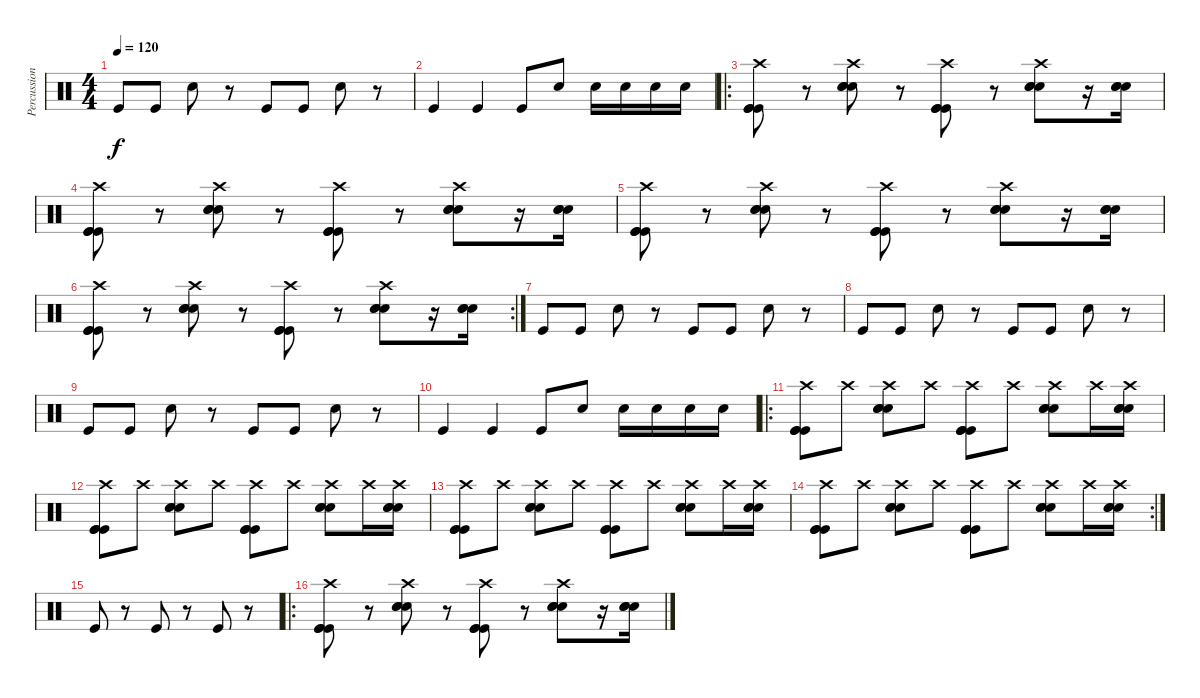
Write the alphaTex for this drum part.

\track ("Percussions" "Percussion") {instrument percussion}
\staff {score}
\articulation defaults
\ts (4 4)
\tempo 120
\clef neutral
\ks c "Kick (hit)".8{dy f} "Kick (hit)".8 "Electric Snare (hit)".8
r.8 "Kick (hit)".8 "Kick (hit)".8 "Electric Snare (hit)".8 r.8 |
"Kick (hit)".4 "Kick (hit)".4 "Kick (hit)".8 "Electric Snare (hit)".8 "Electric Snare (hit)".16 "Electric Snare (hit)".16 "Electric Snare (hit)".16 "Electric Snare (hit)".16 |
\ro
("Crash high (hit)" "Kick (hit)" "Kick (hit)" "Kick (hit)").8 r.8 ("Crash high (hit)" "Electric Snare (hit)" "Electric Snare (hit)" "Electric Snare (hit)").8 r.8 ("Crash high (hit)" "Kick (hit)" "Kick (hit)" "Kick (hit)").8 r.8 ("Crash high (hit)" "Electric Snare (hit)" "Electric Snare (hit)" "Electric Snare (hit)").8 r.16 ("Electric Snare (hit)" "Electric Snare (hit)" "Electric Snare (hit)").16 |
("Crash high (hit)" "Kick (hit)" "Kick (hit)" "Kick (hit)").8 r.8 ("Crash high (hit)" "Electric Snare (hit)" "Electric Snare (hit)" "Electric Snare (hit)").8 r.8 ("Crash high (hit)" "Kick (hit)" "Kick (hit)" "Kick (hit)").8 r.8 ("Crash high (hit)" "Electric Snare (hit)" "Electric Snare (hit)" "Electric Snare (hit)").8 r.16 ("Electric Snare (hit)" "Electric Snare (hit)" "Electric Snare (hit)").16 |
("Crash high (hit)" "Kick (hit)" "Kick (hit)" "Kick (hit)").8 r.8 ("Crash high (hit)" "Electric Snare (hit)" "Electric Snare (hit)" "Electric Snare (hit)").8 r.8 ("Crash high (hit)" "Kick (hit)" "Kick (hit)" "Kick (hit)").8 r.8 ("Crash high (hit)" "Electric Snare (hit)" "Electric Snare (hit)" "Electric Snare (hit)").8 r.16 ("Electric Snare (hit)" "Electric Snare (hit)" "Electric Snare (hit)").16 |
\rc 2
("Crash high (hit)" "Kick (hit)" "Kick (hit)" "Kick (hit)").8 r.8 ("Crash high (hit)" "Electric Snare (hit)" "Electric Snare (hit)" "Electric Snare (hit)").8 r.8 ("Crash high (hit)" "Kick (hit)" "Kick (hit)" "Kick (hit)").8 r.8 ("Crash high (hit)" "Electric Snare (hit)" "Electric Snare (hit)" "Electric Snare (hit)").8 r.16 ("Electric Snare (hit)" "Electric Snare (hit)" "Electric Snare (hit)").16 |
"Kick (hit)".8 "Kick (hit)".8 "Electric Snare (hit)".8 r.8 "Kick (hit)".8 "Kick (hit)".8 "Electric Snare (hit)".8 r.8 |
"Kick (hit)".8 "Kick (hit)".8 "Electric Snare (hit)".8 r.8 "Kick (hit)".8 "Kick (hit)".8 "Electric Snare (hit)".8 r.8 |
"Kick (hit)".8 "Kick (hit)".8 "Electric Snare (hit)".8 r.8 "Kick (hit)".8 "Kick (hit)".8 "Electric Snare (hit)".8 r.8 |
"Kick (hit)".4 "Kick (hit)".4 "Kick (hit)".8 "Electric Snare (hit)".8 "Electric Snare (hit)".16 "Electric Snare (hit)".16 "Electric Snare (hit)".16 "Electric Snare (hit)".16 |
\ro
("Crash high (hit)" "Kick (hit)" "Kick (hit)" "Kick (hit)").8 "Crash high (hit)".8 ("Crash high (hit)" "Electric Snare (hit)" "Electric Snare (hit)" "Electric Snare (hit)").8 "Crash high (hit)".8 ("Crash high (hit)" "Kick (hit)" "Kick (hit)" "Kick (hit)").8 "Crash high (hit)".8 ("Crash high (hit)" "Electric Snare (hit)" "Electric Snare (hit)" "Electric Snare (hit)").8 "Crash high (hit)".16 ("Crash high (hit)" "Electric Snare (hit)" "Electric Snare (hit)" "Electric Snare (hit)").16 |
("Crash high (hit)" "Kick (hit)" "Kick (hit)" "Kick (hit)").8 "Crash high (hit)".8 ("Crash high (hit)" "Electric Snare (hit)" "Electric Snare (hit)" "Electric Snare (hit)").8 "Crash high (hit)".8 ("Crash high (hit)" "Kick (hit)" "Kick (hit)" "Kick (hit)").8 "Crash high (hit)".8 ("Crash high (hit)" "Electric Snare (hit)" "Electric Snare (hit)" "Electric Snare (hit)").8 "Crash high (hit)".16 ("Crash high (hit)" "Electric Snare (hit)" "Electric Snare (hit)" "Electric Snare (hit)").16 |
("Crash high (hit)" "Kick (hit)" "Kick (hit)" "Kick (hit)").8 "Crash high (hit)".8 ("Crash high (hit)" "Electric Snare (hit)" "Electric Snare (hit)" "Electric Snare (hit)").8 "Crash high (hit)".8 ("Crash high (hit)" "Kick (hit)" "Kick (hit)" "Kick (hit)").8 "Crash high (hit)".8 ("Crash high (hit)" "Electric Snare (hit)" "Electric Snare (hit)" "Electric Snare (hit)").8 "Crash high (hit)".16 ("Crash high (hit)" "Electric Snare (hit)" "Electric Snare (hit)" "Electric Snare (hit)").16 |
\rc 2
("Crash high (hit)" "Kick (hit)" "Kick (hit)" "Kick (hit)").8 "Crash high (hit)".8 ("Crash high (hit)" "Electric Snare (hit)" "Electric Snare (hit)" "Electric Snare (hit)").8 "Crash high (hit)".8 ("Crash high (hit)" "Kick (hit)" "Kick (hit)" "Kick (hit)").8 "Crash high (hit)".8 ("Crash high (hit)" "Electric Snare (hit)" "Electric Snare (hit)" "Electric Snare (hit)").8 "Crash high (hit)".16 ("Crash high (hit)" "Electric Snare (hit)" "Electric Snare (hit)" "Electric Snare (hit)").16 |
"Kick (hit)".8 r.8 "Kick (hit)".8 r.8 "Kick (hit)".8 r.8 |
\ro
("Crash high (hit)" "Kick (hit)" "Kick (hit)" "Kick (hit)").8 r.8 ("Crash high (hit)" "Electric Snare (hit)" "Electric Snare (hit)" "Electric Snare (hit)").8 r.8 ("Crash high (hit)" "Kick (hit)" "Kick (hit)" "Kick (hit)").8 r.8 ("Crash high (hit)" "Electric Snare (hit)" "Electric Snare (hit)" "Electric Snare (hit)").8 r.16 ("Electric Snare (hit)" "Electric Snare (hit)" "Electric Snare (hit)").16
